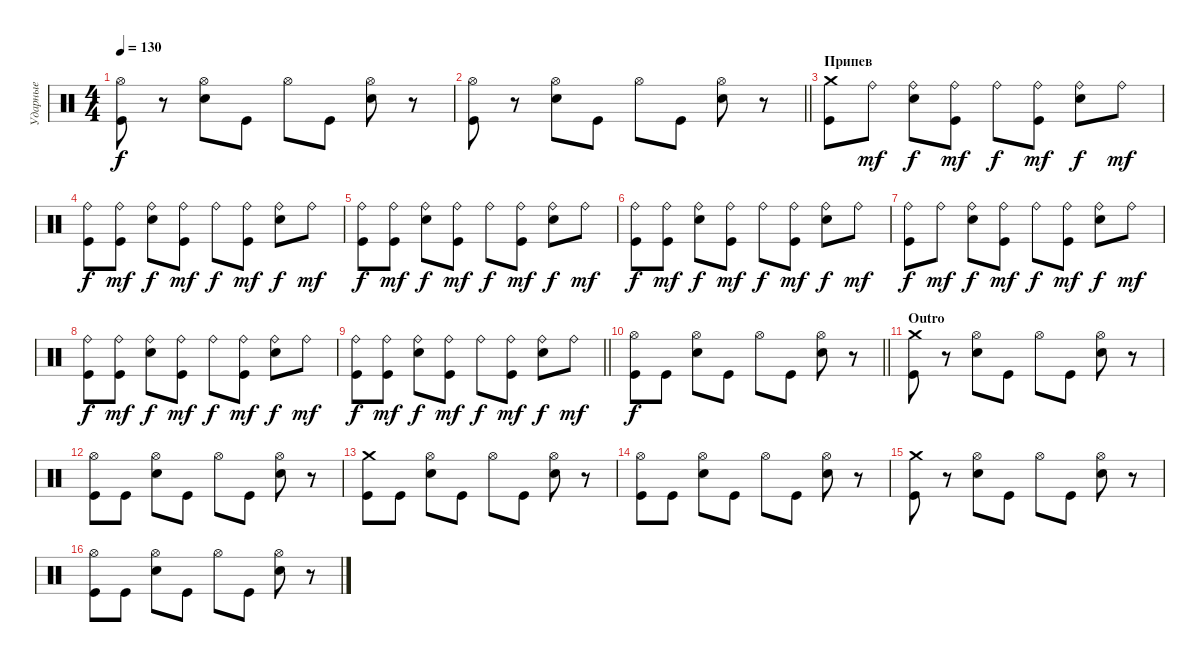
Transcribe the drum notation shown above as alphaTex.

\track ("Ударные" "Ударные") {instrument percussion}
\staff {score}
\articulation defaults
\ts (4 4)
\tempo 130
\clef neutral
\ks c
("Hi-Hat (open)" "Kick (hit)").8{dy f} r.8 ("Hi-Hat (open)" "Electric Snare (hit)").8 "Kick (hit)".8 "Hi-Hat (open)".8 "Kick (hit)".8 ("Hi-Hat (open)" "Electric Snare (hit)").8 r.8 |
\barLineRight lightlight
("Hi-Hat (open)" "Kick (hit)").8 r.8 ("Hi-Hat (open)" "Electric Snare (hit)").8 "Kick (hit)".8 "Hi-Hat (open)".8 "Kick (hit)".8 ("Hi-Hat (open)" "Electric Snare (hit)").8 r.8 |
\section ("" "Припев")
("Crash medium (hit)" "Kick (hit)").8 "Ride (bell)".8{dy mf} ("Ride (bell)" "Electric Snare (hit)").8{dy f} ("Ride (bell)" "Kick (hit)").8{dy mf} "Ride (bell)".8{dy f} ("Ride (bell)" "Kick (hit)").8{dy mf} ("Ride (bell)" "Electric Snare (hit)").8{dy f} "Ride (bell)".8{dy mf} |
("Ride (bell)" "Kick (hit)").8{dy f} ("Ride (bell)" "Kick (hit)").8{dy mf} ("Ride (bell)" "Electric Snare (hit)").8{dy f} ("Ride (bell)" "Kick (hit)").8{dy mf} "Ride (bell)".8{dy f} ("Ride (bell)" "Kick (hit)").8{dy mf} ("Ride (bell)" "Electric Snare (hit)").8{dy f} "Ride (bell)".8{dy mf} |
("Ride (bell)" "Kick (hit)").8{dy f} ("Ride (bell)" "Kick (hit)").8{dy mf} ("Ride (bell)" "Electric Snare (hit)").8{dy f} ("Ride (bell)" "Kick (hit)").8{dy mf} "Ride (bell)".8{dy f} ("Ride (bell)" "Kick (hit)").8{dy mf} ("Ride (bell)" "Electric Snare (hit)").8{dy f} "Ride (bell)".8{dy mf} |
("Ride (bell)" "Kick (hit)").8{dy f} ("Ride (bell)" "Kick (hit)").8{dy mf} ("Ride (bell)" "Electric Snare (hit)").8{dy f} ("Ride (bell)" "Kick (hit)").8{dy mf} "Ride (bell)".8{dy f} ("Ride (bell)" "Kick (hit)").8{dy mf} ("Ride (bell)" "Electric Snare (hit)").8{dy f} "Ride (bell)".8{dy mf} |
("Ride (bell)" "Kick (hit)").8{dy f} "Ride (bell)".8{dy mf} ("Ride (bell)" "Electric Snare (hit)").8{dy f} ("Ride (bell)" "Kick (hit)").8{dy mf} "Ride (bell)".8{dy f} ("Ride (bell)" "Kick (hit)").8{dy mf} ("Ride (bell)" "Electric Snare (hit)").8{dy f} "Ride (bell)".8{dy mf} |
("Ride (bell)" "Kick (hit)").8{dy f} ("Ride (bell)" "Kick (hit)").8{dy mf} ("Ride (bell)" "Electric Snare (hit)").8{dy f} ("Ride (bell)" "Kick (hit)").8{dy mf} "Ride (bell)".8{dy f} ("Ride (bell)" "Kick (hit)").8{dy mf} ("Ride (bell)" "Electric Snare (hit)").8{dy f} "Ride (bell)".8{dy mf} |
\barLineRight lightlight
("Ride (bell)" "Kick (hit)").8{dy f} ("Ride (bell)" "Kick (hit)").8{dy mf} ("Ride (bell)" "Electric Snare (hit)").8{dy f} ("Ride (bell)" "Kick (hit)").8{dy mf} "Ride (bell)".8{dy f} ("Ride (bell)" "Kick (hit)").8{dy mf} ("Ride (bell)" "Electric Snare (hit)").8{dy f} "Ride (bell)".8{dy mf} |
\barLineRight lightlight
("Hi-Hat (open)" "Kick (hit)").8{dy f} "Kick (hit)".8 ("Hi-Hat (open)" "Electric Snare (hit)").8 "Kick (hit)".8 "Hi-Hat (open)".8 "Kick (hit)".8 ("Hi-Hat (open)" "Electric Snare (hit)").8 r.8 |
\section ("" "Outro")
("Crash medium (hit)" "Kick (hit)").8 r.8 ("Hi-Hat (open)" "Electric Snare (hit)").8 "Kick (hit)".8 "Hi-Hat (open)".8 "Kick (hit)".8 ("Hi-Hat (open)" "Electric Snare (hit)").8 r.8 |
("Hi-Hat (open)" "Kick (hit)").8 "Kick (hit)".8 ("Hi-Hat (open)" "Electric Snare (hit)").8 "Kick (hit)".8 "Hi-Hat (open)".8 "Kick (hit)".8 ("Hi-Hat (open)" "Electric Snare (hit)").8 r.8 |
("Crash medium (hit)" "Kick (hit)").8 "Kick (hit)".8 ("Hi-Hat (open)" "Electric Snare (hit)").8 "Kick (hit)".8 "Hi-Hat (open)".8 "Kick (hit)".8 ("Hi-Hat (open)" "Electric Snare (hit)").8 r.8 |
("Hi-Hat (open)" "Kick (hit)").8 "Kick (hit)".8 ("Hi-Hat (open)" "Electric Snare (hit)").8 "Kick (hit)".8 "Hi-Hat (open)".8 "Kick (hit)".8 ("Hi-Hat (open)" "Electric Snare (hit)").8 r.8 |
("Crash medium (hit)" "Kick (hit)").8 r.8 ("Hi-Hat (open)" "Electric Snare (hit)").8 "Kick (hit)".8 "Hi-Hat (open)".8 "Kick (hit)".8 ("Hi-Hat (open)" "Electric Snare (hit)").8 r.8 |
("Hi-Hat (open)" "Kick (hit)").8 "Kick (hit)".8 ("Hi-Hat (open)" "Electric Snare (hit)").8 "Kick (hit)".8 "Hi-Hat (open)".8 "Kick (hit)".8 ("Hi-Hat (open)" "Electric Snare (hit)").8 r.8
